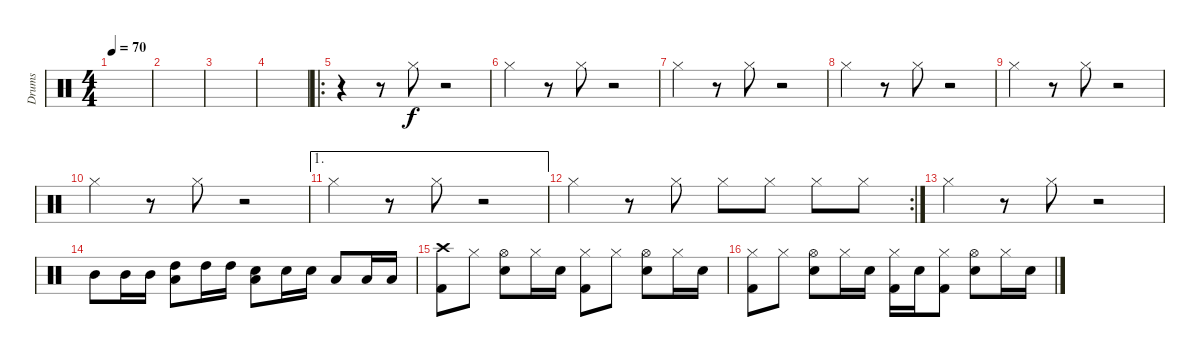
\track ("Drums" "Drums") {instrument percussion}
\staff {score}
\articulation defaults
\ts (4 4)
\tempo 70
\clef neutral
\ks c
|
|
|
|
\ro
r.4 r.8 "Hi-Hat (closed)".8 r.2 |
"Hi-Hat (closed)".4 r.8 "Hi-Hat (closed)".8 r.2 |
"Hi-Hat (closed)".4 r.8 "Hi-Hat (closed)".8 r.2 |
"Hi-Hat (closed)".4 r.8 "Hi-Hat (closed)".8 r.2 |
"Hi-Hat (closed)".4 r.8 "Hi-Hat (closed)".8 r.2 |
"Hi-Hat (closed)".4 r.8 "Hi-Hat (closed)".8 r.2 |
\ae 1 "Hi-Hat (closed)".4
r.8 "Hi-Hat (closed)".8 r.2 |
\rc 2 "Hi-Hat (closed)".4
r.8 "Hi-Hat (closed)".8 "Hi-Hat (closed)".8 "Hi-Hat (closed)".8 "Hi-Hat (closed)".8 "Hi-Hat (closed)".8 |
"Hi-Hat (closed)".4 r.8 "Hi-Hat (closed)".8 r.2 |
"Mid Tom (hit)".8 "Mid Tom (hit)".16 "Mid Tom (hit)".16 ("High Tom (hit)" "Low Tom (hit)").8 "High Tom (hit)".16 "High Tom (hit)".16 ("Snare (hit) 2" "Low Tom (hit)").8 "Snare (hit) 2".16 "Snare (hit) 2".16 "Low Tom (hit)".8 "Low Tom (hit)".16 "Low Tom (hit)".16 |
("Crash high (hit)" "Kick (hit) 2").8 "Hi-Hat (closed)".8 ("Hi-Hat (open)" "Snare (hit) 2").8 "Hi-Hat (closed)".16 "Snare (hit) 2".16 ("Hi-Hat (closed)" "Kick (hit) 2").8 "Hi-Hat (closed)".8 ("Hi-Hat (open)" "Snare (hit) 2").8 "Hi-Hat (closed)".16 "Snare (hit) 2".16 |
("Hi-Hat (closed)" "Kick (hit) 2").8 "Hi-Hat (closed)".8 ("Hi-Hat (open)" "Snare (hit) 2").8 "Hi-Hat (closed)".16 "Snare (hit) 2".16 ("Hi-Hat (closed)" "Kick (hit) 2").16 "Snare (hit) 2".16 ("Hi-Hat (closed)" "Kick (hit) 2").8 ("Hi-Hat (open)" "Snare (hit) 2").8 "Hi-Hat (closed)".16 "Snare (hit) 2".16
